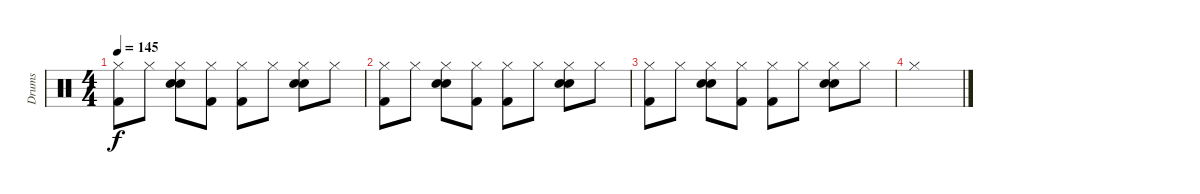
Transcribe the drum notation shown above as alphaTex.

\track ("Drums" "Drums") {instrument percussion}
\staff {score}
\articulation defaults
\ts (4 4)
\tempo 145
\clef neutral
\ks c
("Hi-Hat (closed)" "Kick (hit) 2").8{dy f} "Hi-Hat (closed)".8 ("Hi-Hat (closed)" "Electric Snare (hit)" "Snare (hit) 2").8 ("Hi-Hat (closed)" "Kick (hit) 2").8 ("Hi-Hat (closed)" "Kick (hit) 2").8 "Hi-Hat (closed)".8 ("Hi-Hat (closed)" "Electric Snare (hit)" "Snare (hit) 2").8 "Hi-Hat (closed)".8 |
("Hi-Hat (closed)" "Kick (hit) 2").8 "Hi-Hat (closed)".8 ("Hi-Hat (closed)" "Electric Snare (hit)" "Snare (hit) 2").8 ("Hi-Hat (closed)" "Kick (hit) 2").8 ("Hi-Hat (closed)" "Kick (hit) 2").8 "Hi-Hat (closed)".8 ("Hi-Hat (closed)" "Electric Snare (hit)" "Snare (hit) 2").8 "Hi-Hat (closed)".8 |
("Hi-Hat (closed)" "Kick (hit) 2").8 "Hi-Hat (closed)".8 ("Hi-Hat (closed)" "Electric Snare (hit)" "Snare (hit) 2").8 ("Hi-Hat (closed)" "Kick (hit) 2").8 ("Hi-Hat (closed)" "Kick (hit) 2").8 "Hi-Hat (closed)".8 ("Hi-Hat (closed)" "Electric Snare (hit)" "Snare (hit) 2").8 "Hi-Hat (closed)".8 |
"Hi-Hat (closed)".1
